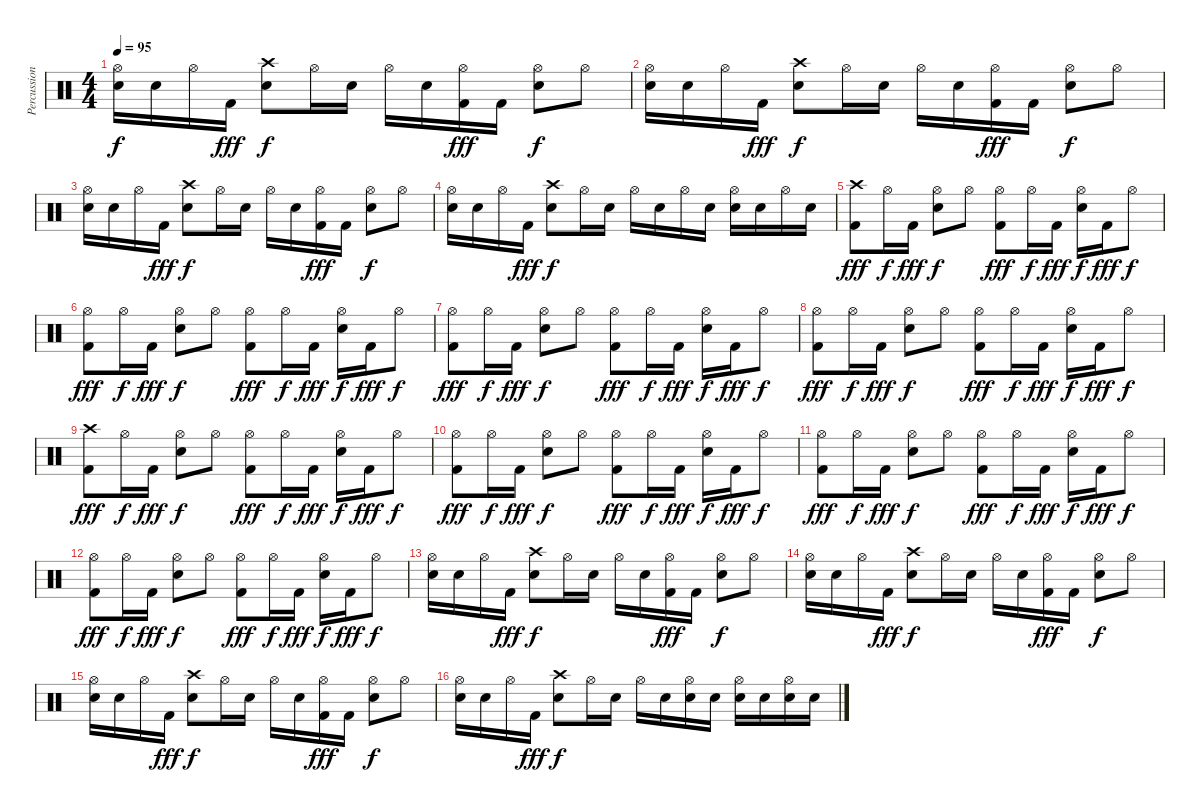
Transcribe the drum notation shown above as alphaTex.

\track ("Percussions" "Percussion") {instrument percussion}
\staff {score}
\articulation defaults
\ts (4 4)
\tempo 95
\clef neutral
\ks c
("Hi-Hat (open)" "Snare (hit) 2").16{dy f} "Snare (hit) 2".16 "Hi-Hat (open)".16 "Kick (hit) 2".16{dy fff} ("Crash high (hit)" "Snare (hit) 2").8{dy f} "Hi-Hat (open)".16 "Snare (hit) 2".16 "Hi-Hat (open)".16 "Snare (hit) 2".16 ("Hi-Hat (open)" "Kick (hit) 2").16{dy fff} "Kick (hit) 2".16 ("Hi-Hat (open)" "Snare (hit) 2").8{dy f} "Hi-Hat (open)".8 |
("Hi-Hat (open)" "Snare (hit) 2").16 "Snare (hit) 2".16 "Hi-Hat (open)".16 "Kick (hit) 2".16{dy fff} ("Crash high (hit)" "Snare (hit) 2").8{dy f} "Hi-Hat (open)".16 "Snare (hit) 2".16 "Hi-Hat (open)".16 "Snare (hit) 2".16 ("Hi-Hat (open)" "Kick (hit) 2").16{dy fff} "Kick (hit) 2".16 ("Hi-Hat (open)" "Snare (hit) 2").8{dy f} "Hi-Hat (open)".8 |
("Hi-Hat (open)" "Snare (hit) 2").16 "Snare (hit) 2".16 "Hi-Hat (open)".16 "Kick (hit) 2".16{dy fff} ("Crash high (hit)" "Snare (hit) 2").8{dy f} "Hi-Hat (open)".16 "Snare (hit) 2".16 "Hi-Hat (open)".16 "Snare (hit) 2".16 ("Hi-Hat (open)" "Kick (hit) 2").16{dy fff} "Kick (hit) 2".16 ("Hi-Hat (open)" "Snare (hit) 2").8{dy f} "Hi-Hat (open)".8 |
("Hi-Hat (open)" "Snare (hit) 2").16 "Snare (hit) 2".16 "Hi-Hat (open)".16 "Kick (hit) 2".16{dy fff} ("Crash high (hit)" "Snare (hit) 2").8{dy f} "Hi-Hat (open)".16 "Snare (hit) 2".16 "Hi-Hat (open)".16 "Snare (hit) 2".16 "Hi-Hat (open)".16 "Snare (hit) 2".16 ("Hi-Hat (open)" "Snare (hit) 2").16 "Snare (hit) 2".16 "Hi-Hat (open)".16 "Snare (hit) 2".16 |
("Crash high (hit)" "Kick (hit) 2").8{dy fff} "Hi-Hat (open)".16{dy f} "Kick (hit) 2".16{dy fff} ("Hi-Hat (open)" "Snare (hit) 2").8{dy f} "Hi-Hat (open)".8 ("Hi-Hat (open)" "Kick (hit) 2").8{dy fff} "Hi-Hat (open)".16{dy f} "Kick (hit) 2".16{dy fff} ("Hi-Hat (open)" "Snare (hit) 2").16{dy f} "Kick (hit) 2".16{dy fff} "Hi-Hat (open)".8{dy f} |
("Hi-Hat (open)" "Kick (hit) 2").8{dy fff} "Hi-Hat (open)".16{dy f} "Kick (hit) 2".16{dy fff} ("Hi-Hat (open)" "Snare (hit) 2").8{dy f} "Hi-Hat (open)".8 ("Hi-Hat (open)" "Kick (hit) 2").8{dy fff} "Hi-Hat (open)".16{dy f} "Kick (hit) 2".16{dy fff} ("Hi-Hat (open)" "Snare (hit) 2").16{dy f} "Kick (hit) 2".16{dy fff} "Hi-Hat (open)".8{dy f} |
("Hi-Hat (open)" "Kick (hit) 2").8{dy fff} "Hi-Hat (open)".16{dy f} "Kick (hit) 2".16{dy fff} ("Hi-Hat (open)" "Snare (hit) 2").8{dy f} "Hi-Hat (open)".8 ("Hi-Hat (open)" "Kick (hit) 2").8{dy fff} "Hi-Hat (open)".16{dy f} "Kick (hit) 2".16{dy fff} ("Hi-Hat (open)" "Snare (hit) 2").16{dy f} "Kick (hit) 2".16{dy fff} "Hi-Hat (open)".8{dy f} |
("Hi-Hat (open)" "Kick (hit) 2").8{dy fff} "Hi-Hat (open)".16{dy f} "Kick (hit) 2".16{dy fff} ("Hi-Hat (open)" "Snare (hit) 2").8{dy f} "Hi-Hat (open)".8 ("Hi-Hat (open)" "Kick (hit) 2").8{dy fff} "Hi-Hat (open)".16{dy f} "Kick (hit) 2".16{dy fff} ("Hi-Hat (open)" "Snare (hit) 2").16{dy f} "Kick (hit) 2".16{dy fff} "Hi-Hat (open)".8{dy f} |
("Crash high (hit)" "Kick (hit) 2").8{dy fff} "Hi-Hat (open)".16{dy f} "Kick (hit) 2".16{dy fff} ("Hi-Hat (open)" "Snare (hit) 2").8{dy f} "Hi-Hat (open)".8 ("Hi-Hat (open)" "Kick (hit) 2").8{dy fff} "Hi-Hat (open)".16{dy f} "Kick (hit) 2".16{dy fff} ("Hi-Hat (open)" "Snare (hit) 2").16{dy f} "Kick (hit) 2".16{dy fff} "Hi-Hat (open)".8{dy f} |
("Hi-Hat (open)" "Kick (hit) 2").8{dy fff} "Hi-Hat (open)".16{dy f} "Kick (hit) 2".16{dy fff} ("Hi-Hat (open)" "Snare (hit) 2").8{dy f} "Hi-Hat (open)".8 ("Hi-Hat (open)" "Kick (hit) 2").8{dy fff} "Hi-Hat (open)".16{dy f} "Kick (hit) 2".16{dy fff} ("Hi-Hat (open)" "Snare (hit) 2").16{dy f} "Kick (hit) 2".16{dy fff} "Hi-Hat (open)".8{dy f} |
("Hi-Hat (open)" "Kick (hit) 2").8{dy fff} "Hi-Hat (open)".16{dy f} "Kick (hit) 2".16{dy fff} ("Hi-Hat (open)" "Snare (hit) 2").8{dy f} "Hi-Hat (open)".8 ("Hi-Hat (open)" "Kick (hit) 2").8{dy fff} "Hi-Hat (open)".16{dy f} "Kick (hit) 2".16{dy fff} ("Hi-Hat (open)" "Snare (hit) 2").16{dy f} "Kick (hit) 2".16{dy fff} "Hi-Hat (open)".8{dy f} |
("Hi-Hat (open)" "Kick (hit) 2").8{dy fff} "Hi-Hat (open)".16{dy f} "Kick (hit) 2".16{dy fff} ("Hi-Hat (open)" "Snare (hit) 2").8{dy f} "Hi-Hat (open)".8 ("Hi-Hat (open)" "Kick (hit) 2").8{dy fff} "Hi-Hat (open)".16{dy f} "Kick (hit) 2".16{dy fff} ("Hi-Hat (open)" "Snare (hit) 2").16{dy f} "Kick (hit) 2".16{dy fff} "Hi-Hat (open)".8{dy f} |
("Hi-Hat (open)" "Snare (hit) 2").16 "Snare (hit) 2".16 "Hi-Hat (open)".16 "Kick (hit) 2".16{dy fff} ("Crash high (hit)" "Snare (hit) 2").8{dy f} "Hi-Hat (open)".16 "Snare (hit) 2".16 "Hi-Hat (open)".16 "Snare (hit) 2".16 ("Hi-Hat (open)" "Kick (hit) 2").16{dy fff} "Kick (hit) 2".16 ("Hi-Hat (open)" "Snare (hit) 2").8{dy f} "Hi-Hat (open)".8 |
("Hi-Hat (open)" "Snare (hit) 2").16 "Snare (hit) 2".16 "Hi-Hat (open)".16 "Kick (hit) 2".16{dy fff} ("Crash high (hit)" "Snare (hit) 2").8{dy f} "Hi-Hat (open)".16 "Snare (hit) 2".16 "Hi-Hat (open)".16 "Snare (hit) 2".16 ("Hi-Hat (open)" "Kick (hit) 2").16{dy fff} "Kick (hit) 2".16 ("Hi-Hat (open)" "Snare (hit) 2").8{dy f} "Hi-Hat (open)".8 |
("Hi-Hat (open)" "Snare (hit) 2").16 "Snare (hit) 2".16 "Hi-Hat (open)".16 "Kick (hit) 2".16{dy fff} ("Crash high (hit)" "Snare (hit) 2").8{dy f} "Hi-Hat (open)".16 "Snare (hit) 2".16 "Hi-Hat (open)".16 "Snare (hit) 2".16 ("Hi-Hat (open)" "Kick (hit) 2").16{dy fff} "Kick (hit) 2".16 ("Hi-Hat (open)" "Snare (hit) 2").8{dy f} "Hi-Hat (open)".8 |
("Hi-Hat (open)" "Snare (hit) 2").16 "Snare (hit) 2".16 "Hi-Hat (open)".16 "Kick (hit) 2".16{dy fff} ("Crash high (hit)" "Snare (hit) 2").8{dy f} "Hi-Hat (open)".16 "Snare (hit) 2".16 "Hi-Hat (open)".16 "Snare (hit) 2".16 ("Hi-Hat (open)" "Snare (hit) 2").16 "Snare (hit) 2".16 ("Hi-Hat (open)" "Snare (hit) 2").16 "Snare (hit) 2".16 ("Hi-Hat (open)" "Snare (hit) 2").16 "Snare (hit) 2".16
